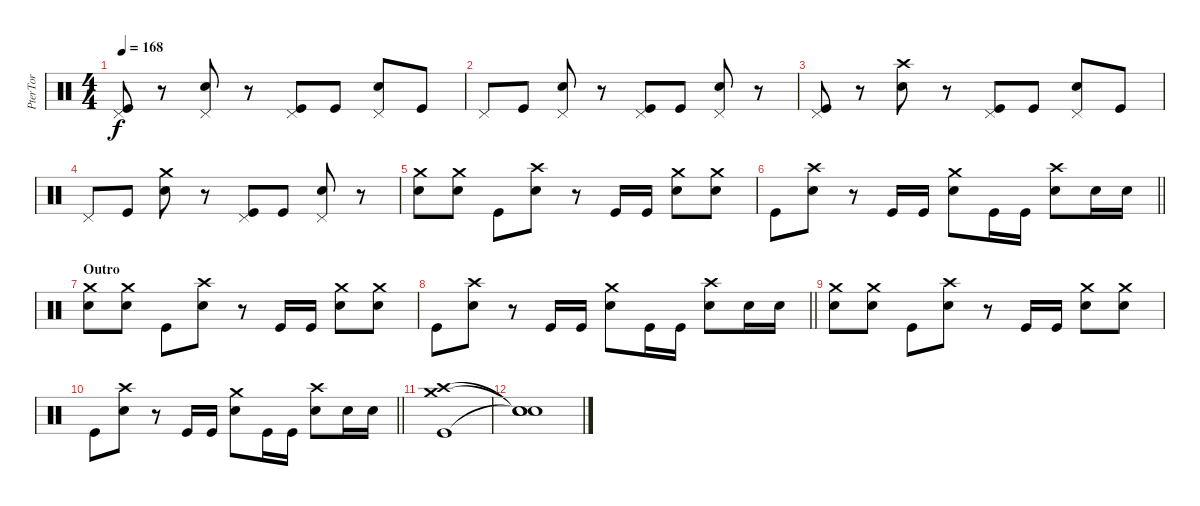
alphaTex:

\track ("PterTor" "PterTor") {instrument percussion}
\staff {score}
\articulation defaults
\ts (4 4)
\tempo 168
\clef neutral
\ks c
("Pedal Hi-Hat (hit)" "Kick (hit)").8{dy f} r.8 ("Pedal Hi-Hat (hit)" "Electric Snare (hit)").8 r.8 ("Pedal Hi-Hat (hit)" "Kick (hit)").8 "Kick (hit)".8 ("Pedal Hi-Hat (hit)" "Electric Snare (hit)").8 "Kick (hit)".8 |
"Pedal Hi-Hat (hit)".8 "Kick (hit)".8 ("Pedal Hi-Hat (hit)" "Electric Snare (hit)").8 r.8 ("Pedal Hi-Hat (hit)" "Kick (hit)").8 "Kick (hit)".8 ("Pedal Hi-Hat (hit)" "Electric Snare (hit)").8 r.8 |
("Pedal Hi-Hat (hit)" "Kick (hit)").8 r.8 ("Crash high (hit)" "Electric Snare (hit)").8 r.8 ("Pedal Hi-Hat (hit)" "Kick (hit)").8 "Kick (hit)".8 ("Pedal Hi-Hat (hit)" "Electric Snare (hit)").8 "Kick (hit)".8 |
"Pedal Hi-Hat (hit)".8 "Kick (hit)".8 ("Crash medium (hit)" "Electric Snare (hit)").8 r.8 ("Pedal Hi-Hat (hit)" "Kick (hit)").8 "Kick (hit)".8 ("Pedal Hi-Hat (hit)" "Electric Snare (hit)").8 r.8 |
("Crash medium (hit)" "Electric Snare (hit)").8 ("Crash medium (hit)" "Electric Snare (hit)").8 "Kick (hit)".8 ("Crash high (hit)" "Electric Snare (hit)").8 r.8 "Kick (hit)".16 "Kick (hit)".16 ("Crash medium (hit)" "Electric Snare (hit)").8 ("Crash medium (hit)" "Electric Snare (hit)").8 |
\barLineRight lightlight "Kick (hit)".8
("Crash high (hit)" "Electric Snare (hit)").8 r.8 "Kick (hit)".16 "Kick (hit)".16 ("Crash medium (hit)" "Electric Snare (hit)").8 "Kick (hit)".16 "Kick (hit)".16 ("Crash high (hit)" "Electric Snare (hit)").8 "Electric Snare (hit)".16 "Electric Snare (hit)".16 |
\section ("" "Outro")
("Crash medium (hit)" "Electric Snare (hit)").8 ("Crash medium (hit)" "Electric Snare (hit)").8 "Kick (hit)".8 ("Crash high (hit)" "Electric Snare (hit)").8 r.8 "Kick (hit)".16 "Kick (hit)".16 ("Crash medium (hit)" "Electric Snare (hit)").8 ("Crash medium (hit)" "Electric Snare (hit)").8 |
\barLineRight lightlight "Kick (hit)".8
("Crash high (hit)" "Electric Snare (hit)").8 r.8 "Kick (hit)".16 "Kick (hit)".16 ("Crash medium (hit)" "Electric Snare (hit)").8 "Kick (hit)".16 "Kick (hit)".16 ("Crash high (hit)" "Electric Snare (hit)").8 "Electric Snare (hit)".16 "Electric Snare (hit)".16 |
("Crash medium (hit)" "Electric Snare (hit)").8 ("Crash medium (hit)" "Electric Snare (hit)").8 "Kick (hit)".8 ("Crash high (hit)" "Electric Snare (hit)").8 r.8 "Kick (hit)".16 "Kick (hit)".16 ("Crash medium (hit)" "Electric Snare (hit)").8 ("Crash medium (hit)" "Electric Snare (hit)").8 |
\barLineRight lightlight "Kick (hit)".8
("Crash high (hit)" "Electric Snare (hit)").8 r.8 "Kick (hit)".16 "Kick (hit)".16 ("Crash medium (hit)" "Electric Snare (hit)").8 "Kick (hit)".16 "Kick (hit)".16 ("Crash high (hit)" "Electric Snare (hit)").8 "Electric Snare (hit)".16 "Electric Snare (hit)".16 |
("Crash high (hit)" "Crash medium (hit)" "Kick (hit)").1 |
("Snare (hit)"{t} "Snare (hit)"{t} "Snare (hit)"{t}).1
